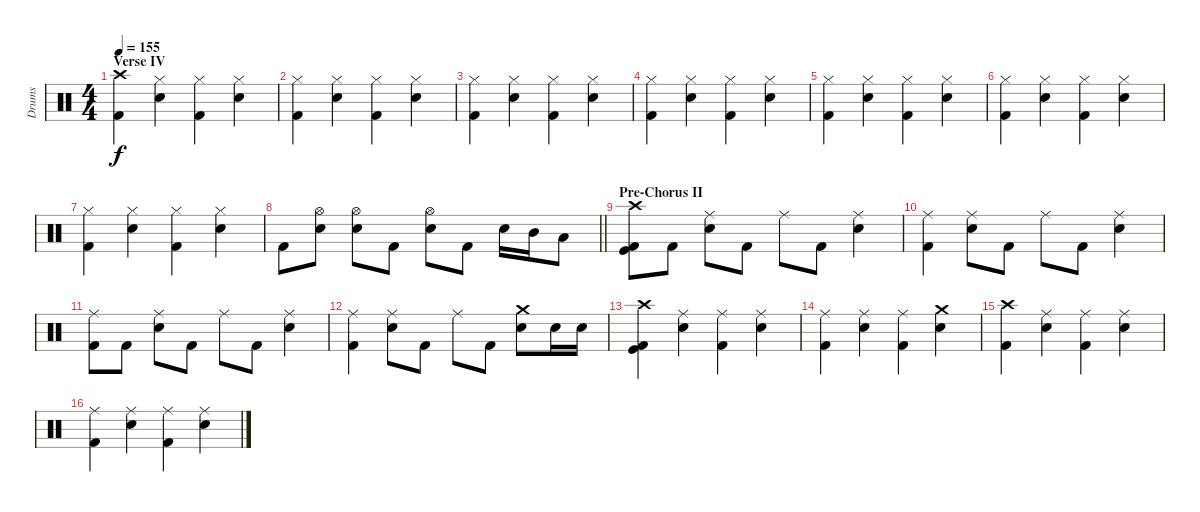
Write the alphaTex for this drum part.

\track ("Drums" "Drums") {instrument percussion}
\staff {score}
\articulation defaults
\ts (4 4)
\section ("" "Verse IV")
\tempo 155
\clef neutral
\ks c
("Crash high (hit)" "Kick (hit) 2").4{dy f} ("Hi-Hat (closed)" "Electric Snare (hit)").4 ("Hi-Hat (closed)" "Kick (hit) 2").4 ("Hi-Hat (closed)" "Electric Snare (hit)").4 |
("Hi-Hat (closed)" "Kick (hit) 2").4 ("Hi-Hat (closed)" "Electric Snare (hit)").4 ("Hi-Hat (closed)" "Kick (hit) 2").4 ("Hi-Hat (closed)" "Electric Snare (hit)").4 |
("Hi-Hat (closed)" "Kick (hit) 2").4 ("Hi-Hat (closed)" "Electric Snare (hit)").4 ("Hi-Hat (closed)" "Kick (hit) 2").4 ("Hi-Hat (closed)" "Electric Snare (hit)").4 |
("Hi-Hat (closed)" "Kick (hit) 2").4 ("Hi-Hat (closed)" "Electric Snare (hit)").4 ("Hi-Hat (closed)" "Kick (hit) 2").4 ("Hi-Hat (closed)" "Electric Snare (hit)").4 |
("Hi-Hat (closed)" "Kick (hit) 2").4 ("Hi-Hat (closed)" "Electric Snare (hit)").4 ("Hi-Hat (closed)" "Kick (hit) 2").4 ("Hi-Hat (closed)" "Electric Snare (hit)").4 |
("Hi-Hat (closed)" "Kick (hit) 2").4 ("Hi-Hat (closed)" "Electric Snare (hit)").4 ("Hi-Hat (closed)" "Kick (hit) 2").4 ("Hi-Hat (closed)" "Electric Snare (hit)").4 |
("Hi-Hat (closed)" "Kick (hit) 2").4 ("Hi-Hat (closed)" "Electric Snare (hit)").4 ("Hi-Hat (closed)" "Kick (hit) 2").4 ("Hi-Hat (closed)" "Electric Snare (hit)").4 |
\barLineRight lightlight "Kick (hit) 2".8
("Hi-Hat (open)" "Electric Snare (hit)").8 ("Hi-Hat (open)" "Electric Snare (hit)").8 "Kick (hit) 2".8 ("Hi-Hat (open)" "Electric Snare (hit)").8 "Kick (hit) 2".8 "Electric Snare (hit)".16 "Mid Tom (hit)".16 "Low Tom (hit)".8 |
\section ("" "Pre-Chorus II")
("Crash high (hit)" "Kick (hit) 2" "Kick (hit)").8 "Kick (hit) 2".8 ("Ride (middle)" "Electric Snare (hit)").8 "Kick (hit) 2".8 "Ride (middle)".8 "Kick (hit) 2".8 ("Ride (middle)" "Electric Snare (hit)").4 |
("Ride (middle)" "Kick (hit) 2").4 ("Ride (middle)" "Electric Snare (hit)").8 "Kick (hit) 2".8 "Ride (middle)".8 "Kick (hit) 2".8 ("Ride (middle)" "Electric Snare (hit)").4 |
("Ride (middle)" "Kick (hit) 2").8 "Kick (hit) 2".8 ("Ride (middle)" "Electric Snare (hit)").8 "Kick (hit) 2".8 "Ride (middle)".8 "Kick (hit) 2".8 ("Ride (middle)" "Electric Snare (hit)").4 |
("Ride (middle)" "Kick (hit) 2").4 ("Ride (middle)" "Electric Snare (hit)").8 "Kick (hit) 2".8 "Ride (middle)".8 "Kick (hit) 2".8 ("Crash medium (hit)" "Electric Snare (hit)").8 "Electric Snare (hit)".16 "Electric Snare (hit)".16 |
("Crash high (hit)" "Kick (hit) 2" "Kick (hit)").4 ("Ride (middle)" "Electric Snare (hit)").4 ("Ride (middle)" "Kick (hit) 2").4 ("Ride (middle)" "Electric Snare (hit)").4 |
("Ride (middle)" "Kick (hit) 2").4 ("Ride (middle)" "Electric Snare (hit)").4 ("Ride (middle)" "Kick (hit) 2").4 ("Crash medium (hit)" "Electric Snare (hit)").4 |
("Crash high (hit)" "Kick (hit) 2").4 ("Ride (middle)" "Electric Snare (hit)").4 ("Ride (middle)" "Kick (hit) 2").4 ("Ride (middle)" "Electric Snare (hit)").4 |
("Ride (middle)" "Kick (hit) 2").4 ("Ride (middle)" "Electric Snare (hit)").4 ("Ride (middle)" "Kick (hit) 2").4 ("Ride (middle)" "Electric Snare (hit)").4
